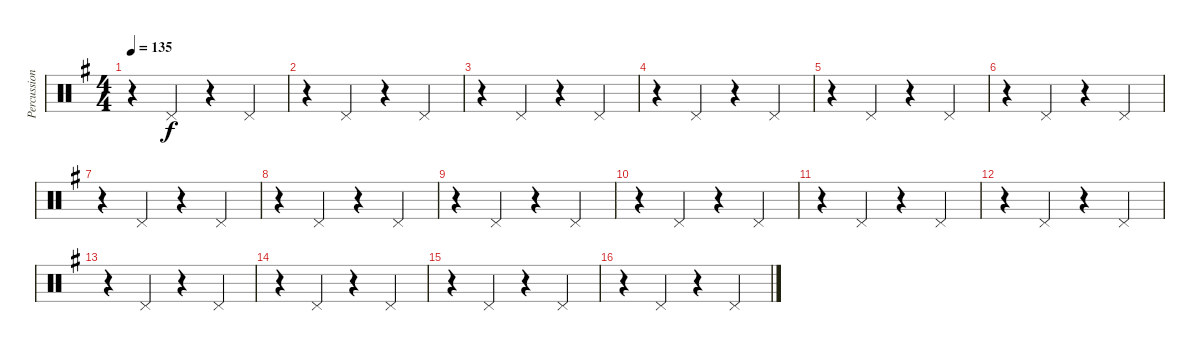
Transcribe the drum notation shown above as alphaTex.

\track ("Percussion" "Percussion") {instrument percussion}
\staff {score}
\articulation defaults
\ts (4 4)
\tempo 135
\clef neutral
\ks g
r.4{dy f} "Pedal Hi-Hat (hit)".4 r.4 "Pedal Hi-Hat (hit)".4 |
r.4 "Pedal Hi-Hat (hit)".4 r.4 "Pedal Hi-Hat (hit)".4 |
r.4 "Pedal Hi-Hat (hit)".4 r.4 "Pedal Hi-Hat (hit)".4 |
r.4 "Pedal Hi-Hat (hit)".4 r.4 "Pedal Hi-Hat (hit)".4 |
r.4 "Pedal Hi-Hat (hit)".4 r.4 "Pedal Hi-Hat (hit)".4 |
r.4 "Pedal Hi-Hat (hit)".4 r.4 "Pedal Hi-Hat (hit)".4 |
r.4 "Pedal Hi-Hat (hit)".4 r.4 "Pedal Hi-Hat (hit)".4 |
r.4 "Pedal Hi-Hat (hit)".4 r.4 "Pedal Hi-Hat (hit)".4 |
r.4 "Pedal Hi-Hat (hit)".4 r.4 "Pedal Hi-Hat (hit)".4 |
r.4 "Pedal Hi-Hat (hit)".4 r.4 "Pedal Hi-Hat (hit)".4 |
r.4 "Pedal Hi-Hat (hit)".4 r.4 "Pedal Hi-Hat (hit)".4 |
r.4 "Pedal Hi-Hat (hit)".4 r.4 "Pedal Hi-Hat (hit)".4 |
r.4 "Pedal Hi-Hat (hit)".4 r.4 "Pedal Hi-Hat (hit)".4 |
r.4 "Pedal Hi-Hat (hit)".4 r.4 "Pedal Hi-Hat (hit)".4 |
r.4 "Pedal Hi-Hat (hit)".4 r.4 "Pedal Hi-Hat (hit)".4 |
r.4 "Pedal Hi-Hat (hit)".4 r.4 "Pedal Hi-Hat (hit)".4
